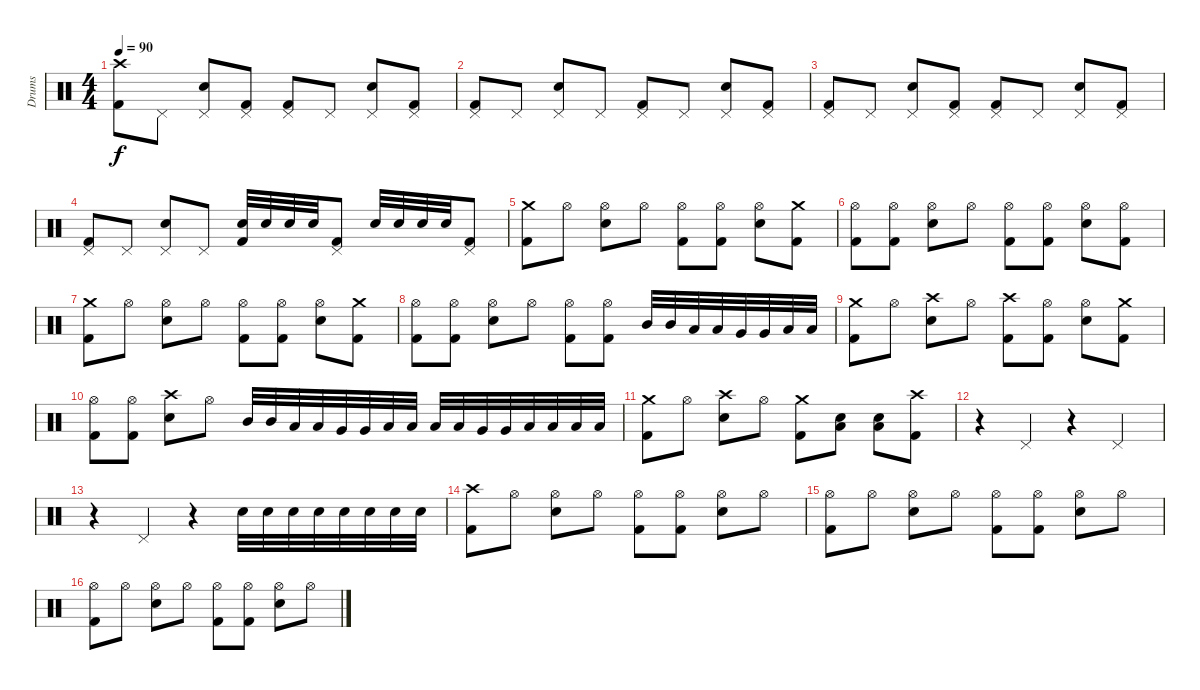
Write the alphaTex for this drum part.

\track ("Drums" "Drums") {instrument percussion}
\staff {score}
\articulation defaults
\ts (4 4)
\tempo 90
\clef neutral
\ks c
("Crash high (hit)" "Kick (hit) 2").8{dy f} "Pedal Hi-Hat (hit)".8 ("Pedal Hi-Hat (hit)" "Electric Snare (hit)").8 ("Pedal Hi-Hat (hit)" "Kick (hit) 2").8 ("Pedal Hi-Hat (hit)" "Kick (hit) 2").8 "Pedal Hi-Hat (hit)".8 ("Pedal Hi-Hat (hit)" "Electric Snare (hit)").8 ("Pedal Hi-Hat (hit)" "Kick (hit) 2").8 |
("Pedal Hi-Hat (hit)" "Kick (hit) 2").8 "Pedal Hi-Hat (hit)".8 ("Pedal Hi-Hat (hit)" "Electric Snare (hit)").8 "Pedal Hi-Hat (hit)".8 ("Pedal Hi-Hat (hit)" "Kick (hit) 2").8 "Pedal Hi-Hat (hit)".8 ("Pedal Hi-Hat (hit)" "Electric Snare (hit)").8 ("Pedal Hi-Hat (hit)" "Kick (hit) 2").8 |
("Pedal Hi-Hat (hit)" "Kick (hit) 2").8 "Pedal Hi-Hat (hit)".8 ("Pedal Hi-Hat (hit)" "Electric Snare (hit)").8 ("Pedal Hi-Hat (hit)" "Kick (hit) 2").8 ("Pedal Hi-Hat (hit)" "Kick (hit) 2").8 "Pedal Hi-Hat (hit)".8 ("Pedal Hi-Hat (hit)" "Electric Snare (hit)").8 ("Pedal Hi-Hat (hit)" "Kick (hit) 2").8 |
("Pedal Hi-Hat (hit)" "Kick (hit) 2").8 "Pedal Hi-Hat (hit)".8 ("Pedal Hi-Hat (hit)" "Electric Snare (hit)").8 "Pedal Hi-Hat (hit)".8 ("Electric Snare (hit)" "Kick (hit) 2").32 "Electric Snare (hit)".32 "Electric Snare (hit)".32 "Electric Snare (hit)".32 ("Pedal Hi-Hat (hit)" "Kick (hit) 2").8 "Electric Snare (hit)".32 "Electric Snare (hit)".32 "Electric Snare (hit)".32 "Electric Snare (hit)".32 ("Pedal Hi-Hat (hit)" "Kick (hit) 2").8 |
("Crash medium (hit)" "Kick (hit) 2").8 "Hi-Hat (open)".8 ("Hi-Hat (open)" "Electric Snare (hit)").8 "Hi-Hat (open)".8 ("Hi-Hat (open)" "Kick (hit) 2").8 ("Hi-Hat (open)" "Kick (hit) 2").8 ("Hi-Hat (open)" "Electric Snare (hit)").8 ("Crash medium (hit)" "Kick (hit) 2").8 |
("Hi-Hat (open)" "Kick (hit) 2").8 ("Hi-Hat (open)" "Kick (hit) 2").8 ("Hi-Hat (open)" "Electric Snare (hit)").8 "Hi-Hat (open)".8 ("Hi-Hat (open)" "Kick (hit) 2").8 ("Hi-Hat (open)" "Kick (hit) 2").8 ("Hi-Hat (open)" "Electric Snare (hit)").8 ("Hi-Hat (open)" "Kick (hit) 2").8 |
("Crash medium (hit)" "Kick (hit) 2").8 "Hi-Hat (open)".8 ("Hi-Hat (open)" "Electric Snare (hit)").8 "Hi-Hat (open)".8 ("Hi-Hat (open)" "Kick (hit) 2").8 ("Hi-Hat (open)" "Kick (hit) 2").8 ("Hi-Hat (open)" "Electric Snare (hit)").8 ("Crash medium (hit)" "Kick (hit) 2").8 |
("Hi-Hat (open)" "Kick (hit) 2").8 ("Hi-Hat (open)" "Kick (hit) 2").8 ("Hi-Hat (open)" "Electric Snare (hit)").8 "Hi-Hat (open)".8 ("Hi-Hat (open)" "Kick (hit) 2").8 ("Hi-Hat (open)" "Kick (hit) 2").8 "Mid Tom (hit)".32 "Mid Tom (hit)".32 "Low Tom (hit)".32 "Low Tom (hit)".32 "Very Low Tom (hit)".32 "Very Low Tom (hit)".32 "Low Floor Tom (hit)".32 "Low Floor Tom (hit)".32 |
("Crash medium (hit)" "Kick (hit) 2").8 "Hi-Hat (open)".8 ("Crash high (hit)" "Electric Snare (hit)").8 "Hi-Hat (open)".8 ("Crash high (hit)" "Kick (hit) 2").8 ("Hi-Hat (open)" "Kick (hit) 2").8 ("Hi-Hat (open)" "Electric Snare (hit)").8 ("Crash medium (hit)" "Kick (hit) 2").8 |
("Hi-Hat (open)" "Kick (hit) 2").8 ("Hi-Hat (open)" "Kick (hit) 2").8 ("Crash high (hit)" "Electric Snare (hit)").8 "Hi-Hat (open)".8 "Mid Tom (hit)".32 "Mid Tom (hit)".32 "Low Tom (hit)".32 "Low Tom (hit)".32 "Very Low Tom (hit)".32 "Very Low Tom (hit)".32 "Low Floor Tom (hit)".32 "Low Floor Tom (hit)".32 "Low Tom (hit)".32 "Low Tom (hit)".32 "Very Low Tom (hit)".32 "Very Low Tom (hit)".32 "Low Floor Tom (hit)".32 "Low Floor Tom (hit)".32 "Low Floor Tom (hit)".32 "Low Floor Tom (hit)".32 |
("Crash medium (hit)" "Kick (hit) 2").8 "Hi-Hat (open)".8 ("Crash high (hit)" "Electric Snare (hit)").8 "Hi-Hat (open)".8 ("Crash medium (hit)" "Kick (hit) 2").8 ("Low Floor Tom (hit)" "Electric Snare (hit)").8 ("Low Floor Tom (hit)" "Electric Snare (hit)").8 ("Crash high (hit)" "Kick (hit) 2").8 |
r.4 "Pedal Hi-Hat (hit)".4 r.4 "Pedal Hi-Hat (hit)".4 |
r.4 "Pedal Hi-Hat (hit)".4 r.4 "Electric Snare (hit)".32 "Electric Snare (hit)".32 "Electric Snare (hit)".32 "Electric Snare (hit)".32 "Electric Snare (hit)".32 "Electric Snare (hit)".32 "Electric Snare (hit)".32 "Electric Snare (hit)".32 |
("Crash high (hit)" "Kick (hit) 2").8 "Hi-Hat (open)".8 ("Hi-Hat (open)" "Electric Snare (hit)").8 "Hi-Hat (open)".8 ("Hi-Hat (open)" "Kick (hit) 2").8 ("Hi-Hat (open)" "Kick (hit) 2").8 ("Hi-Hat (open)" "Electric Snare (hit)").8 "Hi-Hat (open)".8 |
("Hi-Hat (open)" "Kick (hit) 2").8 "Hi-Hat (open)".8 ("Hi-Hat (open)" "Electric Snare (hit)").8 "Hi-Hat (open)".8 ("Hi-Hat (open)" "Kick (hit) 2").8 ("Hi-Hat (open)" "Kick (hit) 2").8 ("Hi-Hat (open)" "Electric Snare (hit)").8 "Hi-Hat (open)".8 |
("Hi-Hat (open)" "Kick (hit) 2").8 "Hi-Hat (open)".8 ("Hi-Hat (open)" "Electric Snare (hit)").8 "Hi-Hat (open)".8 ("Hi-Hat (open)" "Kick (hit) 2").8 ("Hi-Hat (open)" "Kick (hit) 2").8 ("Hi-Hat (open)" "Electric Snare (hit)").8 "Hi-Hat (open)".8
